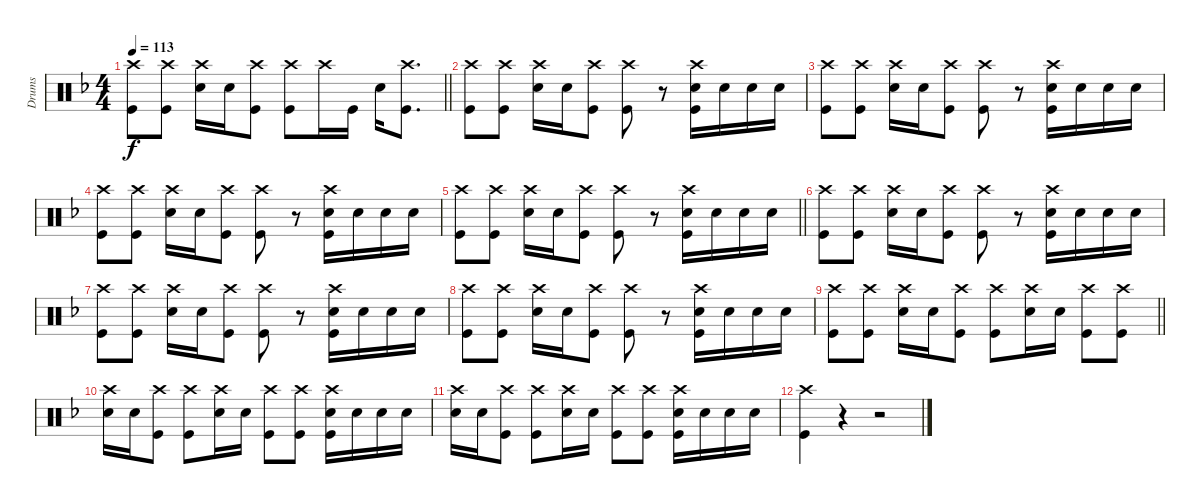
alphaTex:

\track ("Drums" "Drums") {instrument percussion}
\staff {score}
\articulation defaults
\ts (4 4)
\tempo 113
\clef neutral
\barLineRight lightlight
\ks dminor
("Crash high (hit)" "Kick (hit)").8{dy f} ("Crash high (hit)" "Kick (hit)").8 ("Crash high (hit)" "Electric Snare (hit)").16 "Electric Snare (hit)".16 ("Crash high (hit)" "Kick (hit)").8 ("Crash high (hit)" "Kick (hit)").8 "Crash high (hit)".16 "Kick (hit)".16 "Electric Snare (hit)".16 ("Crash high (hit)" "Kick (hit)").8{d} |
\section ("" "")
("Crash high (hit)" "Kick (hit)").8 ("Crash high (hit)" "Kick (hit)").8 ("Crash high (hit)" "Electric Snare (hit)").16 "Electric Snare (hit)".16 ("Crash high (hit)" "Kick (hit)").8 ("Crash high (hit)" "Kick (hit)").8 r.8 ("Crash high (hit)" "Electric Snare (hit)" "Kick (hit)").16 "Electric Snare (hit)".16 "Electric Snare (hit)".16 "Electric Snare (hit)".16 |
("Crash high (hit)" "Kick (hit)").8 ("Crash high (hit)" "Kick (hit)").8 ("Crash high (hit)" "Electric Snare (hit)").16 "Electric Snare (hit)".16 ("Crash high (hit)" "Kick (hit)").8 ("Crash high (hit)" "Kick (hit)").8 r.8 ("Crash high (hit)" "Electric Snare (hit)" "Kick (hit)").16 "Electric Snare (hit)".16 "Electric Snare (hit)".16 "Electric Snare (hit)".16 |
("Crash high (hit)" "Kick (hit)").8 ("Crash high (hit)" "Kick (hit)").8 ("Crash high (hit)" "Electric Snare (hit)").16 "Electric Snare (hit)".16 ("Crash high (hit)" "Kick (hit)").8 ("Crash high (hit)" "Kick (hit)").8 r.8 ("Crash high (hit)" "Electric Snare (hit)" "Kick (hit)").16 "Electric Snare (hit)".16 "Electric Snare (hit)".16 "Electric Snare (hit)".16 |
\barLineRight lightlight
("Crash high (hit)" "Kick (hit)").8 ("Crash high (hit)" "Kick (hit)").8 ("Crash high (hit)" "Electric Snare (hit)").16 "Electric Snare (hit)".16 ("Crash high (hit)" "Kick (hit)").8 ("Crash high (hit)" "Kick (hit)").8 r.8 ("Crash high (hit)" "Electric Snare (hit)" "Kick (hit)").16 "Electric Snare (hit)".16 "Electric Snare (hit)".16 "Electric Snare (hit)".16 |
\section ("" "")
("Crash high (hit)" "Kick (hit)").8 ("Crash high (hit)" "Kick (hit)").8 ("Crash high (hit)" "Electric Snare (hit)").16 "Electric Snare (hit)".16 ("Crash high (hit)" "Kick (hit)").8 ("Crash high (hit)" "Kick (hit)").8 r.8 ("Crash high (hit)" "Electric Snare (hit)" "Kick (hit)").16 "Electric Snare (hit)".16 "Electric Snare (hit)".16 "Electric Snare (hit)".16 |
("Crash high (hit)" "Kick (hit)").8 ("Crash high (hit)" "Kick (hit)").8 ("Crash high (hit)" "Electric Snare (hit)").16 "Electric Snare (hit)".16 ("Crash high (hit)" "Kick (hit)").8 ("Crash high (hit)" "Kick (hit)").8 r.8 ("Crash high (hit)" "Electric Snare (hit)" "Kick (hit)").16 "Electric Snare (hit)".16 "Electric Snare (hit)".16 "Electric Snare (hit)".16 |
("Crash high (hit)" "Kick (hit)").8 ("Crash high (hit)" "Kick (hit)").8 ("Crash high (hit)" "Electric Snare (hit)").16 "Electric Snare (hit)".16 ("Crash high (hit)" "Kick (hit)").8 ("Crash high (hit)" "Kick (hit)").8 r.8 ("Crash high (hit)" "Electric Snare (hit)" "Kick (hit)").16 "Electric Snare (hit)".16 "Electric Snare (hit)".16 "Electric Snare (hit)".16 |
\barLineRight lightlight
("Crash high (hit)" "Kick (hit)").8 ("Crash high (hit)" "Kick (hit)").8 ("Crash high (hit)" "Electric Snare (hit)").16 "Electric Snare (hit)".16 ("Crash high (hit)" "Kick (hit)").8 ("Crash high (hit)" "Kick (hit)").8 ("Crash high (hit)" "Electric Snare (hit)").16 "Electric Snare (hit)".16 ("Crash high (hit)" "Kick (hit)").8 ("Crash high (hit)" "Kick (hit)").8 |
\section ("" "")
("Crash high (hit)" "Electric Snare (hit)").16 "Electric Snare (hit)".16 ("Crash high (hit)" "Kick (hit)").8 ("Crash high (hit)" "Kick (hit)").8 ("Crash high (hit)" "Electric Snare (hit)").16 "Electric Snare (hit)".16 ("Crash high (hit)" "Kick (hit)").8 ("Crash high (hit)" "Kick (hit)").8 ("Crash high (hit)" "Electric Snare (hit)" "Kick (hit)").16 "Electric Snare (hit)".16 "Electric Snare (hit)".16 "Electric Snare (hit)".16 |
("Crash high (hit)" "Electric Snare (hit)").16 "Electric Snare (hit)".16 ("Crash high (hit)" "Kick (hit)").8 ("Crash high (hit)" "Kick (hit)").8 ("Crash high (hit)" "Electric Snare (hit)").16 "Electric Snare (hit)".16 ("Crash high (hit)" "Kick (hit)").8 ("Crash high (hit)" "Kick (hit)").8 ("Crash high (hit)" "Electric Snare (hit)" "Kick (hit)").16 "Electric Snare (hit)".16 "Electric Snare (hit)".16 "Electric Snare (hit)".16 |
("Crash high (hit)" "Kick (hit)").4 r.4 r.2
